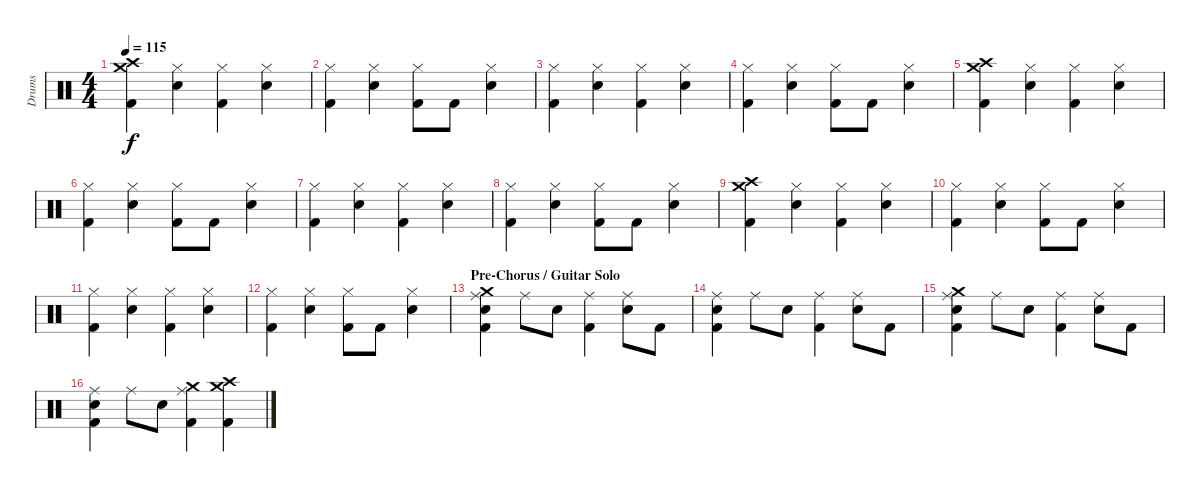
\track ("Drums" "Drums") {instrument percussion}
\staff {score}
\articulation defaults
\ts (4 4)
\tempo 115
\clef neutral
\ks c
("Crash medium (hit)" "Crash high (hit)" "Kick (hit) 2").4{dy f} ("Hi-Hat (closed)" "Snare (hit) 2").4 ("Hi-Hat (closed)" "Kick (hit) 2").4 ("Hi-Hat (closed)" "Snare (hit) 2").4 |
("Hi-Hat (closed)" "Kick (hit) 2").4 ("Hi-Hat (closed)" "Snare (hit) 2").4 ("Hi-Hat (closed)" "Kick (hit) 2").8 "Kick (hit) 2".8 ("Hi-Hat (closed)" "Snare (hit) 2").4 |
("Hi-Hat (closed)" "Kick (hit) 2").4 ("Hi-Hat (closed)" "Snare (hit) 2").4 ("Hi-Hat (closed)" "Kick (hit) 2").4 ("Hi-Hat (closed)" "Snare (hit) 2").4 |
("Hi-Hat (closed)" "Kick (hit) 2").4 ("Hi-Hat (closed)" "Snare (hit) 2").4 ("Hi-Hat (closed)" "Kick (hit) 2").8 "Kick (hit) 2".8 ("Hi-Hat (closed)" "Snare (hit) 2").4 |
("Crash medium (hit)" "Crash high (hit)" "Kick (hit) 2").4 ("Hi-Hat (closed)" "Snare (hit) 2").4 ("Hi-Hat (closed)" "Kick (hit) 2").4 ("Hi-Hat (closed)" "Snare (hit) 2").4 |
("Hi-Hat (closed)" "Kick (hit) 2").4 ("Hi-Hat (closed)" "Snare (hit) 2").4 ("Hi-Hat (closed)" "Kick (hit) 2").8 "Kick (hit) 2".8 ("Hi-Hat (closed)" "Snare (hit) 2").4 |
("Hi-Hat (closed)" "Kick (hit) 2").4 ("Hi-Hat (closed)" "Snare (hit) 2").4 ("Hi-Hat (closed)" "Kick (hit) 2").4 ("Hi-Hat (closed)" "Snare (hit) 2").4 |
("Hi-Hat (closed)" "Kick (hit) 2").4 ("Hi-Hat (closed)" "Snare (hit) 2").4 ("Hi-Hat (closed)" "Kick (hit) 2").8 "Kick (hit) 2".8 ("Hi-Hat (closed)" "Snare (hit) 2").4 |
("Crash medium (hit)" "Crash high (hit)" "Kick (hit) 2").4 ("Hi-Hat (closed)" "Snare (hit) 2").4 ("Hi-Hat (closed)" "Kick (hit) 2").4 ("Hi-Hat (closed)" "Snare (hit) 2").4 |
("Hi-Hat (closed)" "Kick (hit) 2").4 ("Hi-Hat (closed)" "Snare (hit) 2").4 ("Hi-Hat (closed)" "Kick (hit) 2").8 "Kick (hit) 2".8 ("Hi-Hat (closed)" "Snare (hit) 2").4 |
("Hi-Hat (closed)" "Kick (hit) 2").4 ("Hi-Hat (closed)" "Snare (hit) 2").4 ("Hi-Hat (closed)" "Kick (hit) 2").4 ("Hi-Hat (closed)" "Snare (hit) 2").4 |
("Hi-Hat (closed)" "Kick (hit) 2").4 ("Hi-Hat (closed)" "Snare (hit) 2").4 ("Hi-Hat (closed)" "Kick (hit) 2").8 "Kick (hit) 2".8 ("Hi-Hat (closed)" "Snare (hit) 2").4 |
\section ("" "Pre-Chorus / Guitar Solo")
("Ride (middle)" "Crash medium (hit)" "Snare (hit) 2" "Kick (hit) 2").4 "Ride (middle)".8 "Snare (hit) 2".8 ("Ride (middle)" "Kick (hit) 2").4 ("Ride (middle)" "Snare (hit) 2").8 "Kick (hit) 2".8 |
("Ride (middle)" "Snare (hit) 2" "Kick (hit) 2").4 "Ride (middle)".8 "Snare (hit) 2".8 ("Ride (middle)" "Kick (hit) 2").4 ("Ride (middle)" "Snare (hit) 2").8 "Kick (hit) 2".8 |
("Ride (middle)" "Crash medium (hit)" "Snare (hit) 2" "Kick (hit) 2").4 "Ride (middle)".8 "Snare (hit) 2".8 ("Ride (middle)" "Kick (hit) 2").4 ("Ride (middle)" "Snare (hit) 2").8 "Kick (hit) 2".8 |
("Ride (middle)" "Snare (hit) 2" "Kick (hit) 2").4 "Ride (middle)".8 "Snare (hit) 2".8 ("Ride (middle)" "Crash medium (hit)" "Kick (hit) 2").4 ("Crash medium (hit)" "Crash high (hit)" "Kick (hit) 2").4
